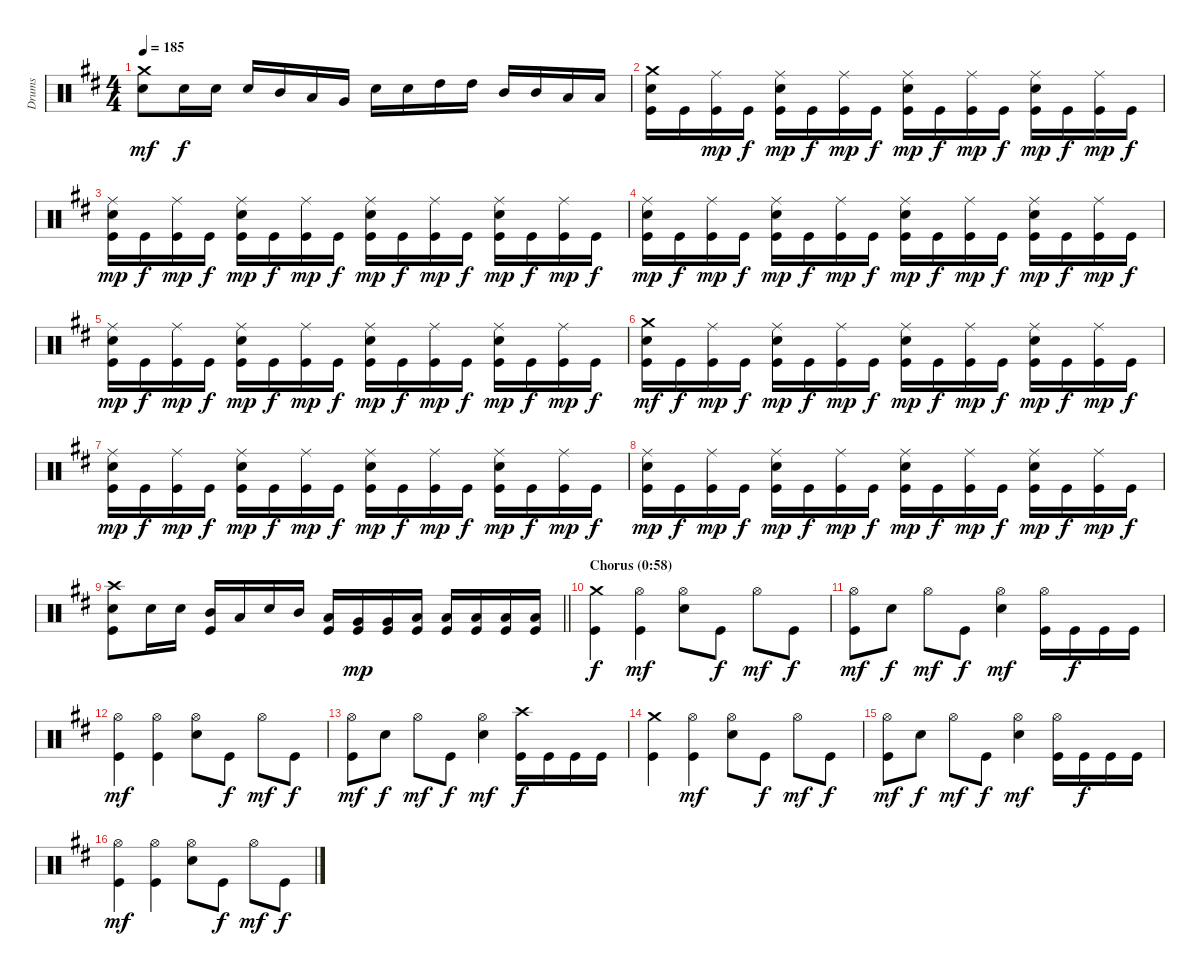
\track ("Drums" "Drums") {instrument percussion}
\staff {score}
\articulation defaults
\ts (4 4)
\tempo 185
\clef neutral
\ks bminor
("Crash medium (hit)" "Snare (hit) 2").8{dy mf} "Snare (hit) 2".16{dy f} "Snare (hit) 2".16 "Snare (hit) 2".16 "Mid Tom (hit)".16 "Low Tom (hit)".16 "Very Low Tom (hit)".16 "Snare (hit) 2".16 "Snare (hit) 2".16 "High Tom (hit)".16 "High Tom (hit)".16 "Mid Tom (hit)".16 "Mid Tom (hit)".16 "Low Tom (hit)".16 "Low Tom (hit)".16 |
("Crash medium (hit)" "Snare (hit) 2" "Kick (hit)").16 "Kick (hit)".16 ("Ride (middle)" "Kick (hit)").16{dy mp} "Kick (hit)".16{dy f} ("Ride (middle)" "Snare (hit) 2" "Kick (hit)").16{dy mp} "Kick (hit)".16{dy f} ("Ride (middle)" "Kick (hit)").16{dy mp} "Kick (hit)".16{dy f} ("Ride (middle)" "Snare (hit) 2" "Kick (hit)").16{dy mp} "Kick (hit)".16{dy f} ("Ride (middle)" "Kick (hit)").16{dy mp} "Kick (hit)".16{dy f} ("Ride (middle)" "Snare (hit) 2" "Kick (hit)").16{dy mp} "Kick (hit)".16{dy f} ("Ride (middle)" "Kick (hit)").16{dy mp} "Kick (hit)".16{dy f} |
("Ride (middle)" "Snare (hit) 2" "Kick (hit)").16{dy mp} "Kick (hit)".16{dy f} ("Ride (middle)" "Kick (hit)").16{dy mp} "Kick (hit)".16{dy f} ("Ride (middle)" "Snare (hit) 2" "Kick (hit)").16{dy mp} "Kick (hit)".16{dy f} ("Ride (middle)" "Kick (hit)").16{dy mp} "Kick (hit)".16{dy f} ("Ride (middle)" "Snare (hit) 2" "Kick (hit)").16{dy mp} "Kick (hit)".16{dy f} ("Ride (middle)" "Kick (hit)").16{dy mp} "Kick (hit)".16{dy f} ("Ride (middle)" "Snare (hit) 2" "Kick (hit)").16{dy mp} "Kick (hit)".16{dy f} ("Ride (middle)" "Kick (hit)").16{dy mp} "Kick (hit)".16{dy f} |
("Ride (middle)" "Snare (hit) 2" "Kick (hit)").16{dy mp} "Kick (hit)".16{dy f} ("Ride (middle)" "Kick (hit)").16{dy mp} "Kick (hit)".16{dy f} ("Ride (middle)" "Snare (hit) 2" "Kick (hit)").16{dy mp} "Kick (hit)".16{dy f} ("Ride (middle)" "Kick (hit)").16{dy mp} "Kick (hit)".16{dy f} ("Ride (middle)" "Snare (hit) 2" "Kick (hit)").16{dy mp} "Kick (hit)".16{dy f} ("Ride (middle)" "Kick (hit)").16{dy mp} "Kick (hit)".16{dy f} ("Ride (middle)" "Snare (hit) 2" "Kick (hit)").16{dy mp} "Kick (hit)".16{dy f} ("Ride (middle)" "Kick (hit)").16{dy mp} "Kick (hit)".16{dy f} |
("Ride (middle)" "Snare (hit) 2" "Kick (hit)").16{dy mp} "Kick (hit)".16{dy f} ("Ride (middle)" "Kick (hit)").16{dy mp} "Kick (hit)".16{dy f} ("Ride (middle)" "Snare (hit) 2" "Kick (hit)").16{dy mp} "Kick (hit)".16{dy f} ("Ride (middle)" "Kick (hit)").16{dy mp} "Kick (hit)".16{dy f} ("Ride (middle)" "Snare (hit) 2" "Kick (hit)").16{dy mp} "Kick (hit)".16{dy f} ("Ride (middle)" "Kick (hit)").16{dy mp} "Kick (hit)".16{dy f} ("Ride (middle)" "Snare (hit) 2" "Kick (hit)").16{dy mp} "Kick (hit)".16{dy f} ("Ride (middle)" "Kick (hit)").16{dy mp} "Kick (hit)".16{dy f} |
("Crash medium (hit)" "Snare (hit) 2" "Kick (hit)").16{dy mf} "Kick (hit)".16{dy f} ("Ride (middle)" "Kick (hit)").16{dy mp} "Kick (hit)".16{dy f} ("Ride (middle)" "Snare (hit) 2" "Kick (hit)").16{dy mp} "Kick (hit)".16{dy f} ("Ride (middle)" "Kick (hit)").16{dy mp} "Kick (hit)".16{dy f} ("Ride (middle)" "Snare (hit) 2" "Kick (hit)").16{dy mp} "Kick (hit)".16{dy f} ("Ride (middle)" "Kick (hit)").16{dy mp} "Kick (hit)".16{dy f} ("Ride (middle)" "Snare (hit) 2" "Kick (hit)").16{dy mp} "Kick (hit)".16{dy f} ("Ride (middle)" "Kick (hit)").16{dy mp} "Kick (hit)".16{dy f} |
("Ride (middle)" "Snare (hit) 2" "Kick (hit)").16{dy mp} "Kick (hit)".16{dy f} ("Ride (middle)" "Kick (hit)").16{dy mp} "Kick (hit)".16{dy f} ("Ride (middle)" "Snare (hit) 2" "Kick (hit)").16{dy mp} "Kick (hit)".16{dy f} ("Ride (middle)" "Kick (hit)").16{dy mp} "Kick (hit)".16{dy f} ("Ride (middle)" "Snare (hit) 2" "Kick (hit)").16{dy mp} "Kick (hit)".16{dy f} ("Ride (middle)" "Kick (hit)").16{dy mp} "Kick (hit)".16{dy f} ("Ride (middle)" "Snare (hit) 2" "Kick (hit)").16{dy mp} "Kick (hit)".16{dy f} ("Ride (middle)" "Kick (hit)").16{dy mp} "Kick (hit)".16{dy f} |
("Ride (middle)" "Snare (hit) 2" "Kick (hit)").16{dy mp} "Kick (hit)".16{dy f} ("Ride (middle)" "Kick (hit)").16{dy mp} "Kick (hit)".16{dy f} ("Ride (middle)" "Snare (hit) 2" "Kick (hit)").16{dy mp} "Kick (hit)".16{dy f} ("Ride (middle)" "Kick (hit)").16{dy mp} "Kick (hit)".16{dy f} ("Ride (middle)" "Snare (hit) 2" "Kick (hit)").16{dy mp} "Kick (hit)".16{dy f} ("Ride (middle)" "Kick (hit)").16{dy mp} "Kick (hit)".16{dy f} ("Ride (middle)" "Snare (hit) 2" "Kick (hit)").16{dy mp} "Kick (hit)".16{dy f} ("Ride (middle)" "Kick (hit)").16{dy mp} "Kick (hit)".16{dy f} |
\barLineRight lightlight
("Crash high (hit)" "Snare (hit) 2" "Kick (hit)").8 "Snare (hit) 2".16 "Snare (hit) 2".16 ("Mid Tom (hit)" "Kick (hit)").16 "Low Tom (hit)".16 "Snare (hit) 2".16 "Mid Tom (hit)".16 ("Low Tom (hit)" "Kick (hit)").16 ("Very Low Tom (hit)" "Kick (hit)").16{dy mp} ("Very Low Tom (hit)" "Kick (hit)").16 ("Low Floor Tom (hit)" "Kick (hit)").16 ("Low Floor Tom (hit)" "Kick (hit)").16 ("Low Floor Tom (hit)" "Kick (hit)").16 ("Low Floor Tom (hit)" "Kick (hit)").16 ("Low Floor Tom (hit)" "Kick (hit)").16 |
\section ("" "Chorus (0:58)")
("Crash medium (hit)" "Kick (hit)").4{dy f} ("Hi-Hat (open)" "Kick (hit)").4{dy mf} ("Hi-Hat (open)" "Snare (hit) 2").8 "Kick (hit)".8{dy f} "Hi-Hat (open)".8{dy mf} "Kick (hit)".8{dy f} |
("Hi-Hat (open)" "Kick (hit)").8{dy mf} "Snare (hit) 2".8{dy f} "Hi-Hat (open)".8{dy mf} "Kick (hit)".8{dy f} ("Hi-Hat (open)" "Snare (hit) 2").4{dy mf} ("Hi-Hat (open)" "Kick (hit)").16 "Kick (hit)".16{dy f} "Kick (hit)".16 "Kick (hit)".16 |
("Hi-Hat (open)" "Kick (hit)").4{dy mf} ("Hi-Hat (open)" "Kick (hit)").4 ("Hi-Hat (open)" "Snare (hit) 2").8 "Kick (hit)".8{dy f} "Hi-Hat (open)".8{dy mf} "Kick (hit)".8{dy f} |
("Hi-Hat (open)" "Kick (hit)").8{dy mf} "Snare (hit) 2".8{dy f} "Hi-Hat (open)".8{dy mf} "Kick (hit)".8{dy f} ("Hi-Hat (open)" "Snare (hit) 2").4{dy mf} ("Crash high (hit)" "Kick (hit)").16{dy f} "Kick (hit)".16 "Kick (hit)".16 "Kick (hit)".16 |
("Crash medium (hit)" "Kick (hit)").4 ("Hi-Hat (open)" "Kick (hit)").4{dy mf} ("Hi-Hat (open)" "Snare (hit) 2").8 "Kick (hit)".8{dy f} "Hi-Hat (open)".8{dy mf} "Kick (hit)".8{dy f} |
("Hi-Hat (open)" "Kick (hit)").8{dy mf} "Snare (hit) 2".8{dy f} "Hi-Hat (open)".8{dy mf} "Kick (hit)".8{dy f} ("Hi-Hat (open)" "Snare (hit) 2").4{dy mf} ("Hi-Hat (open)" "Kick (hit)").16 "Kick (hit)".16{dy f} "Kick (hit)".16 "Kick (hit)".16 |
("Hi-Hat (open)" "Kick (hit)").4{dy mf} ("Hi-Hat (open)" "Kick (hit)").4 ("Hi-Hat (open)" "Snare (hit) 2").8 "Kick (hit)".8{dy f} "Hi-Hat (open)".8{dy mf} "Kick (hit)".8{dy f}
